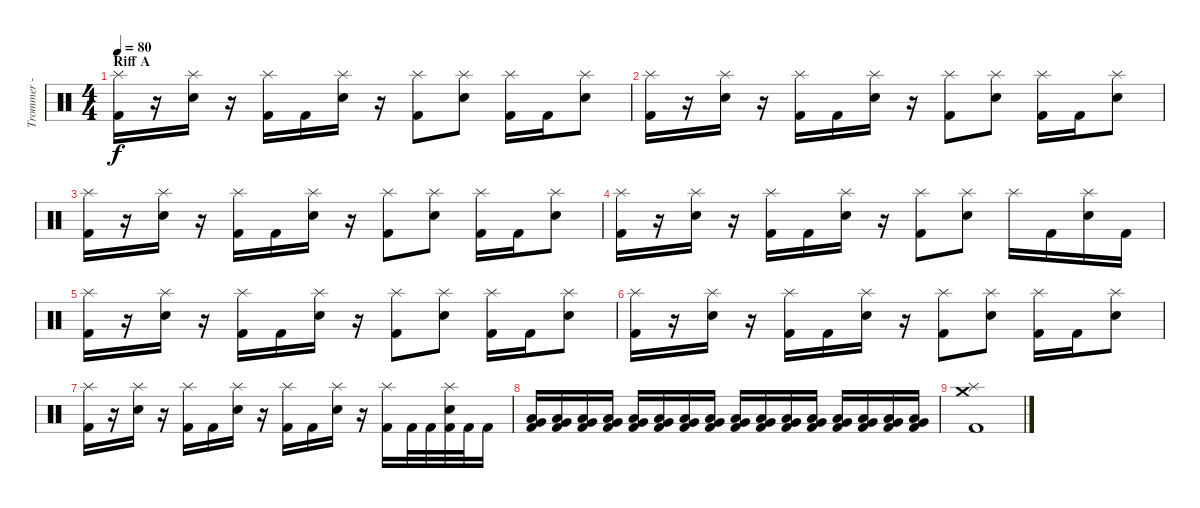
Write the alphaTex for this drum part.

\track ("Trommer - Måtten Møbelbanker" "Trommer - ") {instrument percussion}
\staff {score}
\articulation defaults
\ts (4 4)
\section ("" "Riff A")
\tempo 80
\clef neutral
\ks c
("Splash (hit)" "Kick (hit) 2").16{dy f} r.16 ("Splash (hit)" "Electric Snare (hit)").16 r.16 ("Splash (hit)" "Kick (hit) 2").16 "Kick (hit) 2".16 ("Splash (hit)" "Electric Snare (hit)").16 r.16 ("Splash (hit)" "Kick (hit) 2").8 ("Splash (hit)" "Electric Snare (hit)").8 ("Splash (hit)" "Kick (hit) 2").16 "Kick (hit) 2".16 ("Splash (hit)" "Electric Snare (hit)").8 |
("Splash (hit)" "Kick (hit) 2").16 r.16 ("Splash (hit)" "Electric Snare (hit)").16 r.16 ("Splash (hit)" "Kick (hit) 2").16 "Kick (hit) 2".16 ("Splash (hit)" "Electric Snare (hit)").16 r.16 ("Splash (hit)" "Kick (hit) 2").8 ("Splash (hit)" "Electric Snare (hit)").8 ("Splash (hit)" "Kick (hit) 2").16 "Kick (hit) 2".16 ("Splash (hit)" "Electric Snare (hit)").8 |
("Splash (hit)" "Kick (hit) 2").16 r.16 ("Splash (hit)" "Electric Snare (hit)").16 r.16 ("Splash (hit)" "Kick (hit) 2").16 "Kick (hit) 2".16 ("Splash (hit)" "Electric Snare (hit)").16 r.16 ("Splash (hit)" "Kick (hit) 2").8 ("Splash (hit)" "Electric Snare (hit)").8 ("Splash (hit)" "Kick (hit) 2").16 "Kick (hit) 2".16 ("Splash (hit)" "Electric Snare (hit)").8 |
("Splash (hit)" "Kick (hit) 2").16 r.16 ("Splash (hit)" "Electric Snare (hit)").16 r.16 ("Splash (hit)" "Kick (hit) 2").16 "Kick (hit) 2".16 ("Splash (hit)" "Electric Snare (hit)").16 r.16 ("Splash (hit)" "Kick (hit) 2").8 ("Splash (hit)" "Electric Snare (hit)").8 "Splash (hit)".16 "Kick (hit) 2".16 ("Splash (hit)" "Electric Snare (hit)").16 "Kick (hit) 2".16 |
("Splash (hit)" "Kick (hit) 2").16 r.16 ("Splash (hit)" "Electric Snare (hit)").16 r.16 ("Splash (hit)" "Kick (hit) 2").16 "Kick (hit) 2".16 ("Splash (hit)" "Electric Snare (hit)").16 r.16 ("Splash (hit)" "Kick (hit) 2").8 ("Splash (hit)" "Electric Snare (hit)").8 ("Splash (hit)" "Kick (hit) 2").16 "Kick (hit) 2".16 ("Splash (hit)" "Electric Snare (hit)").8 |
("Splash (hit)" "Kick (hit) 2").16 r.16 ("Splash (hit)" "Electric Snare (hit)").16 r.16 ("Splash (hit)" "Kick (hit) 2").16 "Kick (hit) 2".16 ("Splash (hit)" "Electric Snare (hit)").16 r.16 ("Splash (hit)" "Kick (hit) 2").8 ("Splash (hit)" "Electric Snare (hit)").8 ("Splash (hit)" "Kick (hit) 2").16 "Kick (hit) 2".16 ("Splash (hit)" "Electric Snare (hit)").8 |
("Splash (hit)" "Kick (hit) 2").16 r.16 ("Splash (hit)" "Electric Snare (hit)").16 r.16 ("Splash (hit)" "Kick (hit) 2").16 "Kick (hit) 2".16 ("Splash (hit)" "Electric Snare (hit)").16 r.16 ("Splash (hit)" "Kick (hit) 2").16 "Kick (hit) 2".16 ("Splash (hit)" "Electric Snare (hit)").16 r.16 ("Splash (hit)" "Kick (hit) 2").16 "Kick (hit) 2".32 "Kick (hit) 2".32 ("Splash (hit)" "Electric Snare (hit)" "Kick (hit) 2").32 "Kick (hit) 2".32 "Kick (hit) 2".16 |
("Very Low Tom (hit)" "Low Floor Tom (hit)" "Kick (hit) 2").16 ("Very Low Tom (hit)" "Low Floor Tom (hit)" "Kick (hit) 2").16 ("Very Low Tom (hit)" "Low Floor Tom (hit)" "Kick (hit) 2").16 ("Very Low Tom (hit)" "Low Floor Tom (hit)" "Kick (hit) 2").16 ("Very Low Tom (hit)" "Low Floor Tom (hit)" "Kick (hit) 2").16 ("Very Low Tom (hit)" "Low Floor Tom (hit)" "Kick (hit) 2").16 ("Very Low Tom (hit)" "Low Floor Tom (hit)" "Kick (hit) 2").16 ("Very Low Tom (hit)" "Low Floor Tom (hit)" "Kick (hit) 2").16 ("Very Low Tom (hit)" "Low Floor Tom (hit)" "Kick (hit) 2").16 ("Very Low Tom (hit)" "Low Floor Tom (hit)" "Kick (hit) 2").16 ("Very Low Tom (hit)" "Low Floor Tom (hit)" "Kick (hit) 2").16 ("Very Low Tom (hit)" "Low Floor Tom (hit)" "Kick (hit) 2").16 ("Very Low Tom (hit)" "Low Floor Tom (hit)" "Kick (hit) 2").16 ("Very Low Tom (hit)" "Low Floor Tom (hit)" "Kick (hit) 2").16 ("Very Low Tom (hit)" "Low Floor Tom (hit)" "Kick (hit) 2").16 ("Very Low Tom (hit)" "Low Floor Tom (hit)" "Kick (hit) 2").16 |
("Splash (hit)" "Crash medium (hit)" "Kick (hit) 2").1
